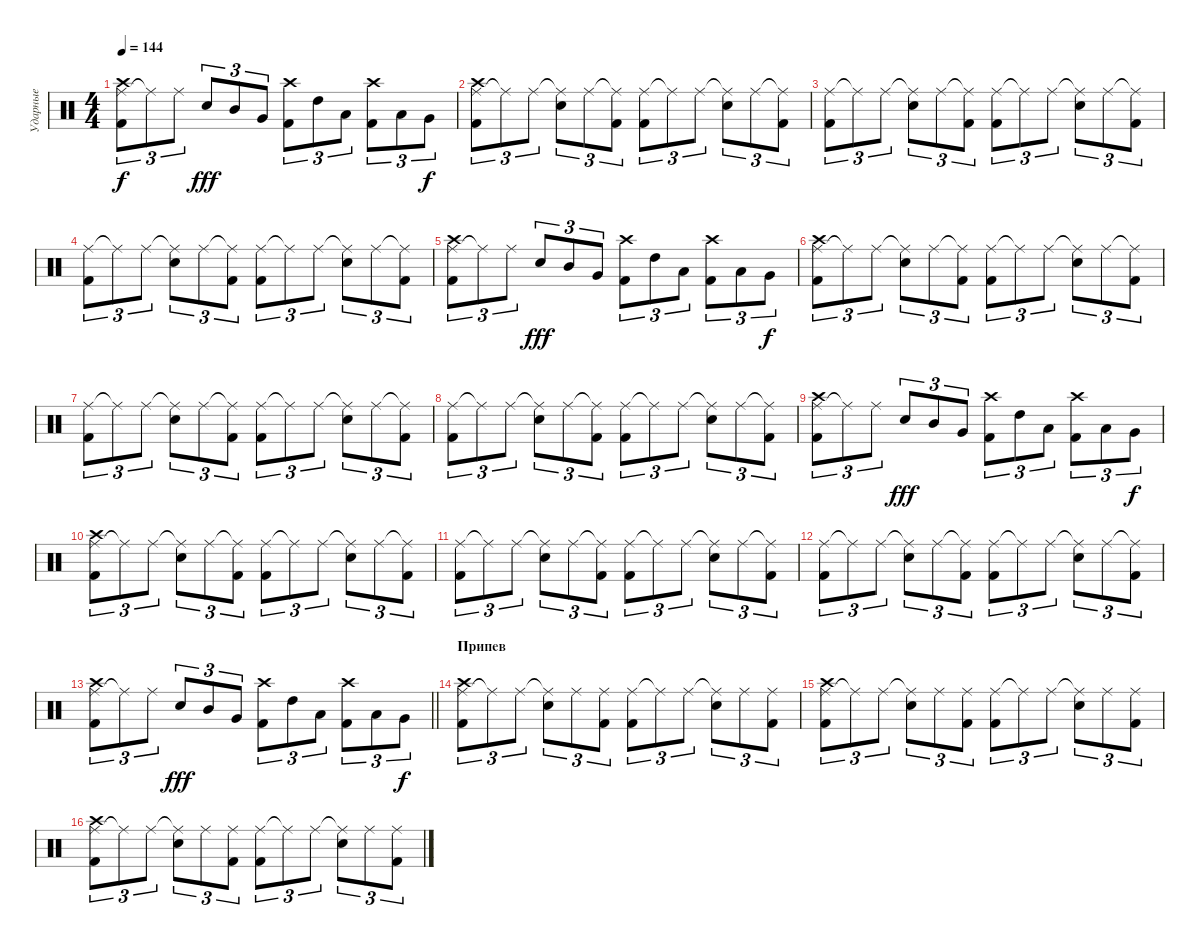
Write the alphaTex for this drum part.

\track ("Ударные" "Ударные") {instrument percussion}
\staff {score}
\articulation defaults
\ts (4 4)
\tempo 144
\clef neutral
\ks c
("Ride (middle)" "Kick (hit) 2" "Crash high (hit)").8{tu (3 2) dy f} "Ride (middle)"{t}.8{tu (3 2)} "Ride (middle)".8{tu (3 2)} "Snare (hit) 2".8{tu (3 2) dy fff} "Mid Tom (hit)".8{tu (3 2)} "Very Low Tom (hit)".8{tu (3 2)} ("Kick (hit) 2" "Crash high (hit)").8{tu (3 2)} "High Tom (hit)".8{tu (3 2)} "Low Tom (hit)".8{tu (3 2)} ("Crash high (hit)" "Kick (hit) 2").8{tu (3 2)} "Low Tom (hit)".8{tu (3 2)} "Very Low Tom (hit)".8{tu (3 2) dy f} |
("Ride (middle)" "Kick (hit) 2" "Crash high (hit)").8{tu (3 2)} "Ride (middle)"{t}.8{tu (3 2)} "Ride (middle)".8{tu (3 2)} ("Ride (middle)"{t} "Snare (hit) 2").8{tu (3 2)} "Ride (middle)".8{tu (3 2)} ("Ride (middle)"{t} "Kick (hit) 2").8{tu (3 2)} ("Ride (middle)" "Kick (hit) 2").8{tu (3 2)} "Ride (middle)"{t}.8{tu (3 2)} "Ride (middle)".8{tu (3 2)} ("Ride (middle)"{t} "Snare (hit) 2").8{tu (3 2)} "Ride (middle)".8{tu (3 2)} ("Ride (middle)"{t} "Kick (hit) 2").8{tu (3 2)} |
("Ride (middle)" "Kick (hit) 2").8{tu (3 2)} "Ride (middle)"{t}.8{tu (3 2)} "Ride (middle)".8{tu (3 2)} ("Ride (middle)"{t} "Snare (hit) 2").8{tu (3 2)} "Ride (middle)".8{tu (3 2)} ("Ride (middle)"{t} "Kick (hit) 2").8{tu (3 2)} ("Ride (middle)" "Kick (hit) 2").8{tu (3 2)} "Ride (middle)"{t}.8{tu (3 2)} "Ride (middle)".8{tu (3 2)} ("Ride (middle)"{t} "Snare (hit) 2").8{tu (3 2)} "Ride (middle)".8{tu (3 2)} ("Ride (middle)"{t} "Kick (hit) 2").8{tu (3 2)} |
("Ride (middle)" "Kick (hit) 2").8{tu (3 2)} "Ride (middle)"{t}.8{tu (3 2)} "Ride (middle)".8{tu (3 2)} ("Ride (middle)"{t} "Snare (hit) 2").8{tu (3 2)} "Ride (middle)".8{tu (3 2)} ("Ride (middle)"{t} "Kick (hit) 2").8{tu (3 2)} ("Ride (middle)" "Kick (hit) 2").8{tu (3 2)} "Ride (middle)"{t}.8{tu (3 2)} "Ride (middle)".8{tu (3 2)} ("Ride (middle)"{t} "Snare (hit) 2").8{tu (3 2)} "Ride (middle)".8{tu (3 2)} ("Ride (middle)"{t} "Kick (hit) 2").8{tu (3 2)} |
("Ride (middle)" "Kick (hit) 2" "Crash high (hit)").8{tu (3 2)} "Ride (middle)"{t}.8{tu (3 2)} "Ride (middle)".8{tu (3 2)} "Snare (hit) 2".8{tu (3 2) dy fff} "Mid Tom (hit)".8{tu (3 2)} "Very Low Tom (hit)".8{tu (3 2)} ("Kick (hit) 2" "Crash high (hit)").8{tu (3 2)} "High Tom (hit)".8{tu (3 2)} "Low Tom (hit)".8{tu (3 2)} ("Crash high (hit)" "Kick (hit) 2").8{tu (3 2)} "Low Tom (hit)".8{tu (3 2)} "Very Low Tom (hit)".8{tu (3 2) dy f} |
("Ride (middle)" "Kick (hit) 2" "Crash high (hit)").8{tu (3 2)} "Ride (middle)"{t}.8{tu (3 2)} "Ride (middle)".8{tu (3 2)} ("Ride (middle)"{t} "Snare (hit) 2").8{tu (3 2)} "Ride (middle)".8{tu (3 2)} ("Ride (middle)"{t} "Kick (hit) 2").8{tu (3 2)} ("Ride (middle)" "Kick (hit) 2").8{tu (3 2)} "Ride (middle)"{t}.8{tu (3 2)} "Ride (middle)".8{tu (3 2)} ("Ride (middle)"{t} "Snare (hit) 2").8{tu (3 2)} "Ride (middle)".8{tu (3 2)} ("Ride (middle)"{t} "Kick (hit) 2").8{tu (3 2)} |
("Ride (middle)" "Kick (hit) 2").8{tu (3 2)} "Ride (middle)"{t}.8{tu (3 2)} "Ride (middle)".8{tu (3 2)} ("Ride (middle)"{t} "Snare (hit) 2").8{tu (3 2)} "Ride (middle)".8{tu (3 2)} ("Ride (middle)"{t} "Kick (hit) 2").8{tu (3 2)} ("Ride (middle)" "Kick (hit) 2").8{tu (3 2)} "Ride (middle)"{t}.8{tu (3 2)} "Ride (middle)".8{tu (3 2)} ("Ride (middle)"{t} "Snare (hit) 2").8{tu (3 2)} "Ride (middle)".8{tu (3 2)} ("Ride (middle)"{t} "Kick (hit) 2").8{tu (3 2)} |
("Ride (middle)" "Kick (hit) 2").8{tu (3 2)} "Ride (middle)"{t}.8{tu (3 2)} "Ride (middle)".8{tu (3 2)} ("Ride (middle)"{t} "Snare (hit) 2").8{tu (3 2)} "Ride (middle)".8{tu (3 2)} ("Ride (middle)"{t} "Kick (hit) 2").8{tu (3 2)} ("Ride (middle)" "Kick (hit) 2").8{tu (3 2)} "Ride (middle)"{t}.8{tu (3 2)} "Ride (middle)".8{tu (3 2)} ("Ride (middle)"{t} "Snare (hit) 2").8{tu (3 2)} "Ride (middle)".8{tu (3 2)} ("Ride (middle)"{t} "Kick (hit) 2").8{tu (3 2)} |
("Ride (middle)" "Kick (hit) 2" "Crash high (hit)").8{tu (3 2)} "Ride (middle)"{t}.8{tu (3 2)} "Ride (middle)".8{tu (3 2)} "Snare (hit) 2".8{tu (3 2) dy fff} "Mid Tom (hit)".8{tu (3 2)} "Very Low Tom (hit)".8{tu (3 2)} ("Kick (hit) 2" "Crash high (hit)").8{tu (3 2)} "High Tom (hit)".8{tu (3 2)} "Low Tom (hit)".8{tu (3 2)} ("Crash high (hit)" "Kick (hit) 2").8{tu (3 2)} "Low Tom (hit)".8{tu (3 2)} "Very Low Tom (hit)".8{tu (3 2) dy f} |
("Ride (middle)" "Kick (hit) 2" "Crash high (hit)").8{tu (3 2)} "Ride (middle)"{t}.8{tu (3 2)} "Ride (middle)".8{tu (3 2)} ("Ride (middle)"{t} "Snare (hit) 2").8{tu (3 2)} "Ride (middle)".8{tu (3 2)} ("Ride (middle)"{t} "Kick (hit) 2").8{tu (3 2)} ("Ride (middle)" "Kick (hit) 2").8{tu (3 2)} "Ride (middle)"{t}.8{tu (3 2)} "Ride (middle)".8{tu (3 2)} ("Ride (middle)"{t} "Snare (hit) 2").8{tu (3 2)} "Ride (middle)".8{tu (3 2)} ("Ride (middle)"{t} "Kick (hit) 2").8{tu (3 2)} |
("Ride (middle)" "Kick (hit) 2").8{tu (3 2)} "Ride (middle)"{t}.8{tu (3 2)} "Ride (middle)".8{tu (3 2)} ("Ride (middle)"{t} "Snare (hit) 2").8{tu (3 2)} "Ride (middle)".8{tu (3 2)} ("Ride (middle)"{t} "Kick (hit) 2").8{tu (3 2)} ("Ride (middle)" "Kick (hit) 2").8{tu (3 2)} "Ride (middle)"{t}.8{tu (3 2)} "Ride (middle)".8{tu (3 2)} ("Ride (middle)"{t} "Snare (hit) 2").8{tu (3 2)} "Ride (middle)".8{tu (3 2)} ("Ride (middle)"{t} "Kick (hit) 2").8{tu (3 2)} |
("Ride (middle)" "Kick (hit) 2").8{tu (3 2)} "Ride (middle)"{t}.8{tu (3 2)} "Ride (middle)".8{tu (3 2)} ("Ride (middle)"{t} "Snare (hit) 2").8{tu (3 2)} "Ride (middle)".8{tu (3 2)} ("Ride (middle)"{t} "Kick (hit) 2").8{tu (3 2)} ("Ride (middle)" "Kick (hit) 2").8{tu (3 2)} "Ride (middle)"{t}.8{tu (3 2)} "Ride (middle)".8{tu (3 2)} ("Ride (middle)"{t} "Snare (hit) 2").8{tu (3 2)} "Ride (middle)".8{tu (3 2)} ("Ride (middle)"{t} "Kick (hit) 2").8{tu (3 2)} |
\barLineRight lightlight
("Ride (middle)" "Kick (hit) 2" "Crash high (hit)").8{tu (3 2)} "Ride (middle)"{t}.8{tu (3 2)} "Ride (middle)".8{tu (3 2)} "Snare (hit) 2".8{tu (3 2) dy fff} "Mid Tom (hit)".8{tu (3 2)} "Very Low Tom (hit)".8{tu (3 2)} ("Kick (hit) 2" "Crash high (hit)").8{tu (3 2)} "High Tom (hit)".8{tu (3 2)} "Low Tom (hit)".8{tu (3 2)} ("Crash high (hit)" "Kick (hit) 2").8{tu (3 2)} "Low Tom (hit)".8{tu (3 2)} "Very Low Tom (hit)".8{tu (3 2) dy f} |
\section ("" "Припев")
("Ride (middle)" "Kick (hit) 2" "Crash high (hit)").8{tu (3 2)} "Ride (middle)"{t}.8{tu (3 2)} "Ride (middle)".8{tu (3 2)} ("Ride (middle)"{t} "Snare (hit) 2").8{tu (3 2)} "Ride (middle)".8{tu (3 2)} ("Ride (middle)" "Kick (hit) 2").8{tu (3 2)} ("Ride (middle)" "Kick (hit) 2").8{tu (3 2)} "Ride (middle)"{t}.8{tu (3 2)} "Ride (middle)".8{tu (3 2)} ("Ride (middle)"{t} "Snare (hit) 2").8{tu (3 2)} "Ride (middle)".8{tu (3 2)} ("Ride (middle)" "Kick (hit) 2").8{tu (3 2)} |
("Ride (middle)" "Kick (hit) 2" "Crash high (hit)").8{tu (3 2)} "Ride (middle)"{t}.8{tu (3 2)} "Ride (middle)".8{tu (3 2)} ("Ride (middle)"{t} "Snare (hit) 2").8{tu (3 2)} "Ride (middle)".8{tu (3 2)} ("Ride (middle)" "Kick (hit) 2").8{tu (3 2)} ("Ride (middle)" "Kick (hit) 2").8{tu (3 2)} "Ride (middle)"{t}.8{tu (3 2)} "Ride (middle)".8{tu (3 2)} ("Ride (middle)"{t} "Snare (hit) 2").8{tu (3 2)} "Ride (middle)".8{tu (3 2)} ("Ride (middle)" "Kick (hit) 2").8{tu (3 2)} |
("Ride (middle)" "Kick (hit) 2" "Crash high (hit)").8{tu (3 2)} "Ride (middle)"{t}.8{tu (3 2)} "Ride (middle)".8{tu (3 2)} ("Ride (middle)"{t} "Snare (hit) 2").8{tu (3 2)} "Ride (middle)".8{tu (3 2)} ("Ride (middle)" "Kick (hit) 2").8{tu (3 2)} ("Ride (middle)" "Kick (hit) 2").8{tu (3 2)} "Ride (middle)"{t}.8{tu (3 2)} "Ride (middle)".8{tu (3 2)} ("Ride (middle)"{t} "Snare (hit) 2").8{tu (3 2)} "Ride (middle)".8{tu (3 2)} ("Ride (middle)" "Kick (hit) 2").8{tu (3 2)}
